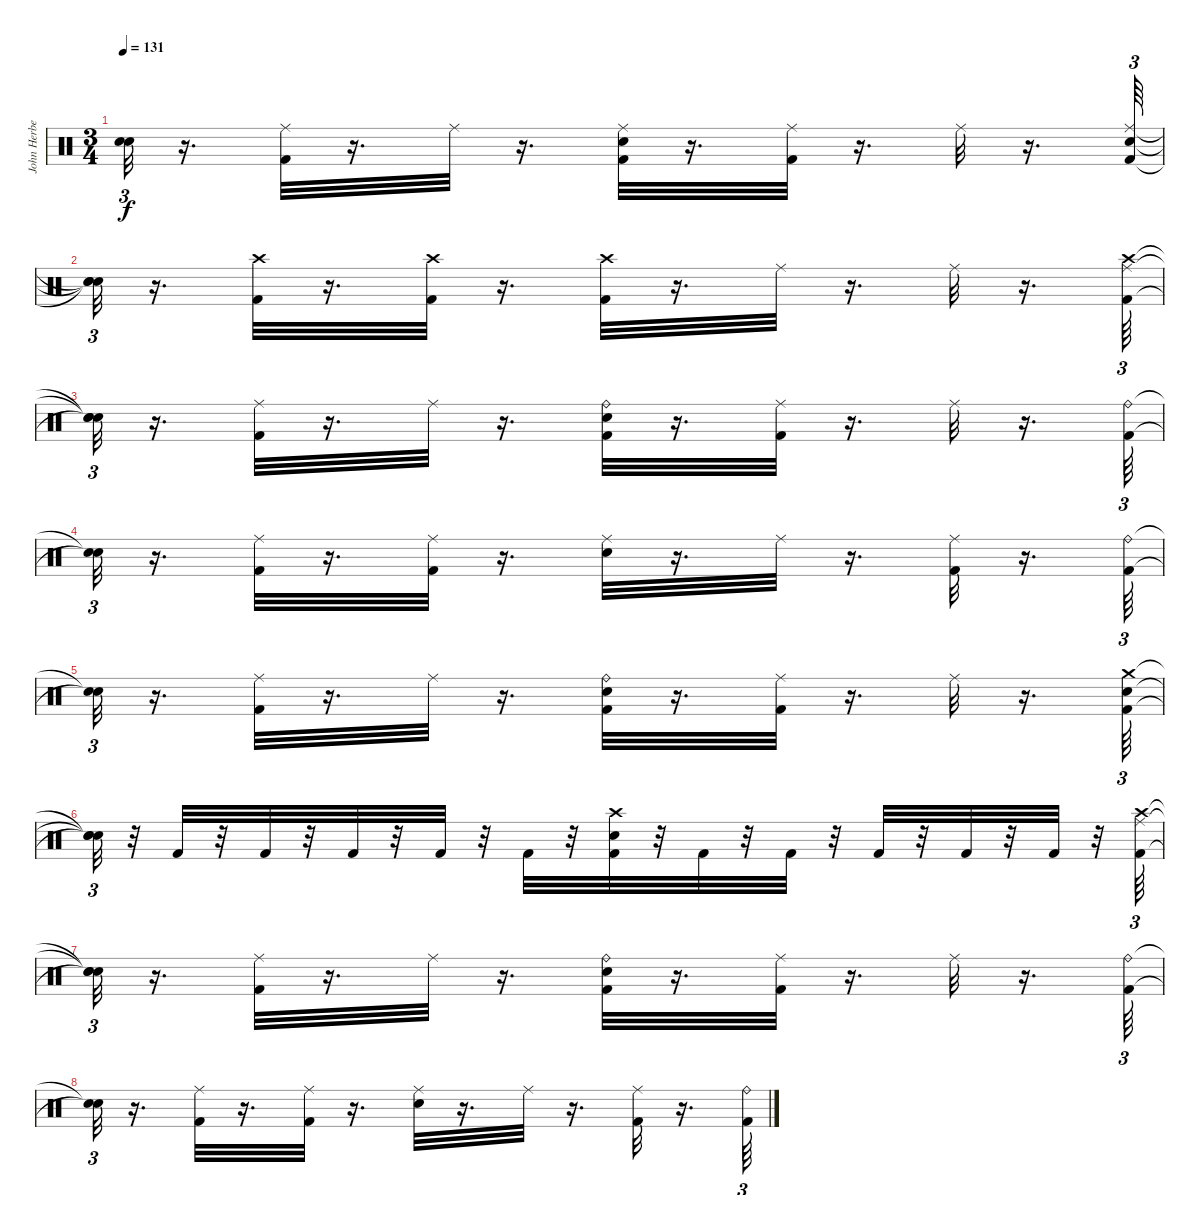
\track ("John Herbert" "John Herbe") {instrument percussion}
\staff {score}
\articulation defaults
\ts (3 4)
\tempo 131
\clef neutral
\ks c
("Snare (hit)"{t} "Snare (hit)"{t}).32{tu (3 2) dy f} r.16{d} ("Ride (middle)" "Kick (hit) 2").32 r.16{d} "Ride (middle)".32 r.16{d} ("Kick (hit) 2" "Ride (middle)" "Snare (hit) 2").32 r.16{d} ("Ride (middle)" "Kick (hit) 2").32 r.16{d} "Ride (middle)".32 r.16{d} ("Snare (hit) 2" "Kick (hit) 2" "Ride (middle)").64{tu (3 2)} |
("Snare (hit)"{t} "Snare (hit)"{t} "Snare (hit)"{t}).32{tu (3 2)} r.16{d} ("Kick (hit) 2" "Crash high (hit)").32 r.16{d} ("Kick (hit) 2" "Crash high (hit)").32 r.16{d} ("Kick (hit) 2" "Crash high (hit)").32 r.16{d} "Ride (middle)".32 r.16{d} "Ride (middle)".32 r.16{d} ("Crash high (hit)" "Kick (hit) 2" "Ride (middle)").64{tu (3 2)} |
("Snare (hit)"{t} "Snare (hit)"{t} "Snare (hit)"{t}).32{tu (3 2)} r.16{d} ("Kick (hit) 2" "Ride (middle)").32 r.16{d} "Ride (middle)".32 r.16{d} ("Kick (hit) 2" "Snare (hit) 2" "Ride (bell)").32 r.16{d} ("Kick (hit) 2" "Ride (middle)").32 r.16{d} "Ride (middle)".32 r.16{d} ("Kick (hit) 2" "Ride (bell)").64{tu (3 2)} |
("Snare (hit)"{t} "Snare (hit)"{t}).32{tu (3 2)} r.16{d} ("Kick (hit) 2" "Ride (middle)").32 r.16{d} ("Kick (hit) 2" "Ride (middle)").32 r.16{d} ("Snare (hit) 2" "Ride (middle)").32 r.16{d} "Ride (middle)".32 r.16{d} ("Kick (hit) 2" "Ride (middle)").32 r.16{d} ("Kick (hit) 2" "Ride (bell)").64{tu (3 2)} |
("Snare (hit)"{t} "Snare (hit)"{t}).32{tu (3 2)} r.16{d} ("Kick (hit) 2" "Ride (middle)").32 r.16{d} "Ride (middle)".32 r.16{d} ("Kick (hit) 2" "Snare (hit) 2" "Ride (bell)").32 r.16{d} ("Kick (hit) 2" "Ride (middle)").32 r.16{d} "Ride (middle)".32 r.16{d} ("Snare (hit) 2" "Kick (hit) 2" "Crash medium (hit)").64{tu (3 2)} |
("Snare (hit)"{t} "Snare (hit)"{t} "Snare (hit)"{t}).32{tu (3 2)} r.32 "Kick (hit) 2".32 r.32 "Kick (hit) 2".32 r.32 "Kick (hit) 2".32 r.32 "Kick (hit) 2".32 r.32 "Kick (hit) 2".32 r.32 ("Crash high (hit)" "Snare (hit) 2" "Kick (hit) 2").32 r.32 "Kick (hit) 2".32 r.32 "Kick (hit) 2".32 r.32 "Kick (hit) 2".32 r.32 "Kick (hit) 2".32 r.32 "Kick (hit) 2".32 r.32 ("Crash high (hit)" "Kick (hit) 2" "Ride (middle)").64{tu (3 2)} |
("Snare (hit)"{t} "Snare (hit)"{t} "Snare (hit)"{t}).32{tu (3 2)} r.16{d} ("Kick (hit) 2" "Ride (middle)").32 r.16{d} "Ride (middle)".32 r.16{d} ("Kick (hit) 2" "Snare (hit) 2" "Ride (bell)").32 r.16{d} ("Kick (hit) 2" "Ride (middle)").32 r.16{d} "Ride (middle)".32 r.16{d} ("Kick (hit) 2" "Ride (bell)").64{tu (3 2)} |
("Snare (hit)"{t} "Snare (hit)"{t}).32{tu (3 2)} r.16{d} ("Kick (hit) 2" "Ride (middle)").32 r.16{d} ("Kick (hit) 2" "Ride (middle)").32 r.16{d} ("Snare (hit) 2" "Ride (middle)").32 r.16{d} "Ride (middle)".32 r.16{d} ("Kick (hit) 2" "Ride (middle)").32 r.16{d} ("Kick (hit) 2" "Ride (bell)").64{tu (3 2)}
